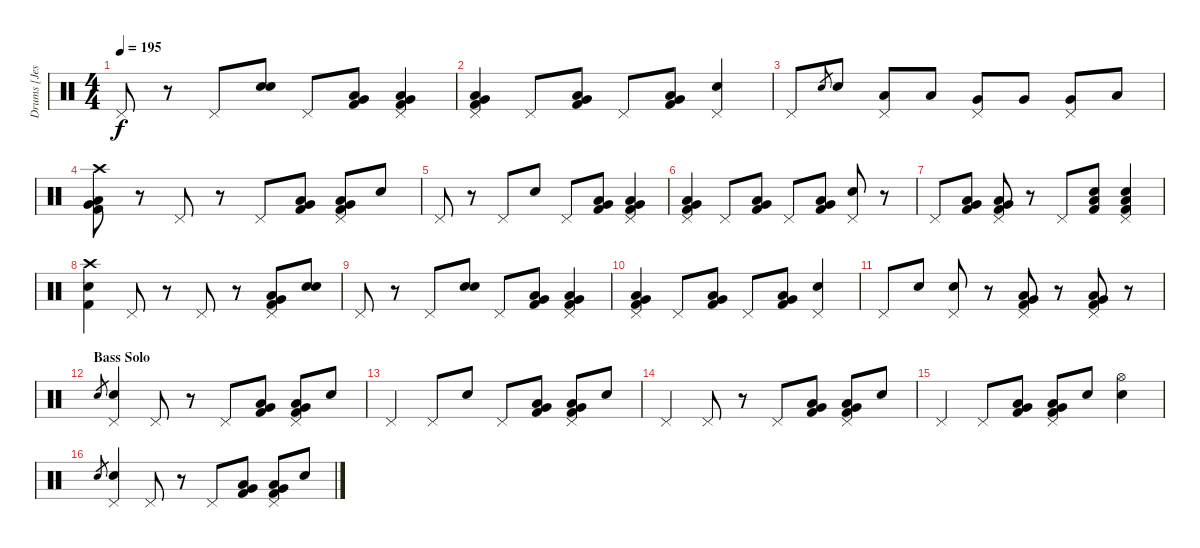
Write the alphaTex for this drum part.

\track ("Drums [Jesse Ingelevics]" "Drums [Jes") {instrument percussion}
\staff {score}
\articulation defaults
\ts (4 4)
\tempo 195
\clef neutral
\ks c "Pedal Hi-Hat (hit)".8{dy f}
r.8 "Pedal Hi-Hat (hit)".8 ("Electric Snare (hit)" "Electric Snare (hit)").8 "Pedal Hi-Hat (hit)".8 ("Very Low Tom (hit)" "Low Floor Tom (hit)" "Kick (hit) 2").8 ("Pedal Hi-Hat (hit)" "Very Low Tom (hit)" "Low Floor Tom (hit)" "Kick (hit) 2").4 |
("Pedal Hi-Hat (hit)" "Very Low Tom (hit)" "Low Floor Tom (hit)" "Kick (hit) 2").4 "Pedal Hi-Hat (hit)".8 ("Very Low Tom (hit)" "Low Floor Tom (hit)" "Kick (hit) 2").8 "Pedal Hi-Hat (hit)".8 ("Very Low Tom (hit)" "Low Floor Tom (hit)" "Kick (hit) 2").8 ("Pedal Hi-Hat (hit)" "Electric Snare (hit)").4 |
"Pedal Hi-Hat (hit)".8 "Electric Snare (hit)".8{gr} "Electric Snare (hit)".8 ("Pedal Hi-Hat (hit)" "Low Tom (hit)").8 "Low Tom (hit)".8 ("Pedal Hi-Hat (hit)" "Very Low Tom (hit)").8 "Very Low Tom (hit)".8 ("Pedal Hi-Hat (hit)" "Very Low Tom (hit)").8 "Low Floor Tom (hit)".8 |
("Crash high (hit)" "Very Low Tom (hit)" "Low Floor Tom (hit)" "Kick (hit) 2").8 r.8 "Pedal Hi-Hat (hit)".8 r.8 "Pedal Hi-Hat (hit)".8 ("Very Low Tom (hit)" "Low Floor Tom (hit)" "Kick (hit) 2").8 ("Pedal Hi-Hat (hit)" "Very Low Tom (hit)" "Low Floor Tom (hit)" "Kick (hit) 2").8 "Electric Snare (hit)".8 |
"Pedal Hi-Hat (hit)".8 r.8 "Pedal Hi-Hat (hit)".8 "Electric Snare (hit)".8 "Pedal Hi-Hat (hit)".8 ("Very Low Tom (hit)" "Low Floor Tom (hit)" "Kick (hit) 2").8 ("Pedal Hi-Hat (hit)" "Very Low Tom (hit)" "Low Floor Tom (hit)" "Kick (hit) 2").4 |
("Pedal Hi-Hat (hit)" "Very Low Tom (hit)" "Low Floor Tom (hit)" "Kick (hit) 2").4 "Pedal Hi-Hat (hit)".8 ("Very Low Tom (hit)" "Low Floor Tom (hit)" "Kick (hit) 2").8 "Pedal Hi-Hat (hit)".8 ("Very Low Tom (hit)" "Low Floor Tom (hit)" "Kick (hit) 2").8 ("Pedal Hi-Hat (hit)" "Electric Snare (hit)").8 r.8 |
"Pedal Hi-Hat (hit)".8 ("Very Low Tom (hit)" "Low Floor Tom (hit)" "Kick (hit) 2").8 ("Pedal Hi-Hat (hit)" "Very Low Tom (hit)" "Low Floor Tom (hit)" "Kick (hit) 2").8 r.8 "Pedal Hi-Hat (hit)".8 ("Electric Snare (hit)" "Low Floor Tom (hit)" "Kick (hit) 2").8 ("Pedal Hi-Hat (hit)" "Electric Snare (hit)" "Low Floor Tom (hit)" "Kick (hit) 2").4 |
("Crash high (hit)" "Electric Snare (hit)" "Kick (hit) 2").4 "Pedal Hi-Hat (hit)".8 r.8 "Pedal Hi-Hat (hit)".8 r.8 ("Pedal Hi-Hat (hit)" "Very Low Tom (hit)" "Low Floor Tom (hit)" "Kick (hit) 2").8 ("Electric Snare (hit)" "Electric Snare (hit)").8 |
"Pedal Hi-Hat (hit)".8 r.8 "Pedal Hi-Hat (hit)".8 ("Electric Snare (hit)" "Electric Snare (hit)").8 "Pedal Hi-Hat (hit)".8 ("Very Low Tom (hit)" "Low Floor Tom (hit)" "Kick (hit) 2").8 ("Pedal Hi-Hat (hit)" "Very Low Tom (hit)" "Low Floor Tom (hit)" "Kick (hit) 2").4 |
("Pedal Hi-Hat (hit)" "Very Low Tom (hit)" "Low Floor Tom (hit)" "Kick (hit) 2").4 "Pedal Hi-Hat (hit)".8 ("Very Low Tom (hit)" "Low Floor Tom (hit)" "Kick (hit) 2").8 "Pedal Hi-Hat (hit)".8 ("Very Low Tom (hit)" "Low Floor Tom (hit)" "Kick (hit) 2").8 ("Pedal Hi-Hat (hit)" "Electric Snare (hit)").4 |
"Pedal Hi-Hat (hit)".8 "Electric Snare (hit)".8 ("Pedal Hi-Hat (hit)" "Electric Snare (hit)").8 r.8 ("Pedal Hi-Hat (hit)" "Very Low Tom (hit)" "Low Floor Tom (hit)" "Kick (hit) 2").8 r.8 ("Pedal Hi-Hat (hit)" "Very Low Tom (hit)" "Low Floor Tom (hit)" "Kick (hit) 2").8 r.8 |
\section ("" "Bass Solo")
"Electric Snare (hit)".8{gr} ("Pedal Hi-Hat (hit)" "Electric Snare (hit)").4 "Pedal Hi-Hat (hit)".8 r.8 "Pedal Hi-Hat (hit)".8 ("Very Low Tom (hit)" "Low Floor Tom (hit)" "Kick (hit) 2").8 ("Pedal Hi-Hat (hit)" "Very Low Tom (hit)" "Low Floor Tom (hit)" "Kick (hit) 2").8 "Electric Snare (hit)".8 |
"Pedal Hi-Hat (hit)".4 "Pedal Hi-Hat (hit)".8 "Electric Snare (hit)".8 "Pedal Hi-Hat (hit)".8 ("Very Low Tom (hit)" "Low Floor Tom (hit)" "Kick (hit) 2").8 ("Pedal Hi-Hat (hit)" "Very Low Tom (hit)" "Low Floor Tom (hit)" "Kick (hit) 2").8 "Electric Snare (hit)".8 |
"Pedal Hi-Hat (hit)".4 "Pedal Hi-Hat (hit)".8 r.8 "Pedal Hi-Hat (hit)".8 ("Very Low Tom (hit)" "Low Floor Tom (hit)" "Kick (hit) 2").8 ("Pedal Hi-Hat (hit)" "Very Low Tom (hit)" "Low Floor Tom (hit)" "Kick (hit) 2").8 "Electric Snare (hit)".8 |
"Pedal Hi-Hat (hit)".4 "Pedal Hi-Hat (hit)".8 ("Very Low Tom (hit)" "Low Floor Tom (hit)" "Kick (hit) 2").8 ("Pedal Hi-Hat (hit)" "Very Low Tom (hit)" "Low Floor Tom (hit)" "Kick (hit) 2").8 "Electric Snare (hit)".8 ("Hi-Hat (open)" "Electric Snare (hit)").4 |
"Electric Snare (hit)".8{gr} ("Pedal Hi-Hat (hit)" "Electric Snare (hit)").4 "Pedal Hi-Hat (hit)".8 r.8 "Pedal Hi-Hat (hit)".8 ("Very Low Tom (hit)" "Low Floor Tom (hit)" "Kick (hit) 2").8 ("Pedal Hi-Hat (hit)" "Very Low Tom (hit)" "Low Floor Tom (hit)" "Kick (hit) 2").8 "Electric Snare (hit)".8
